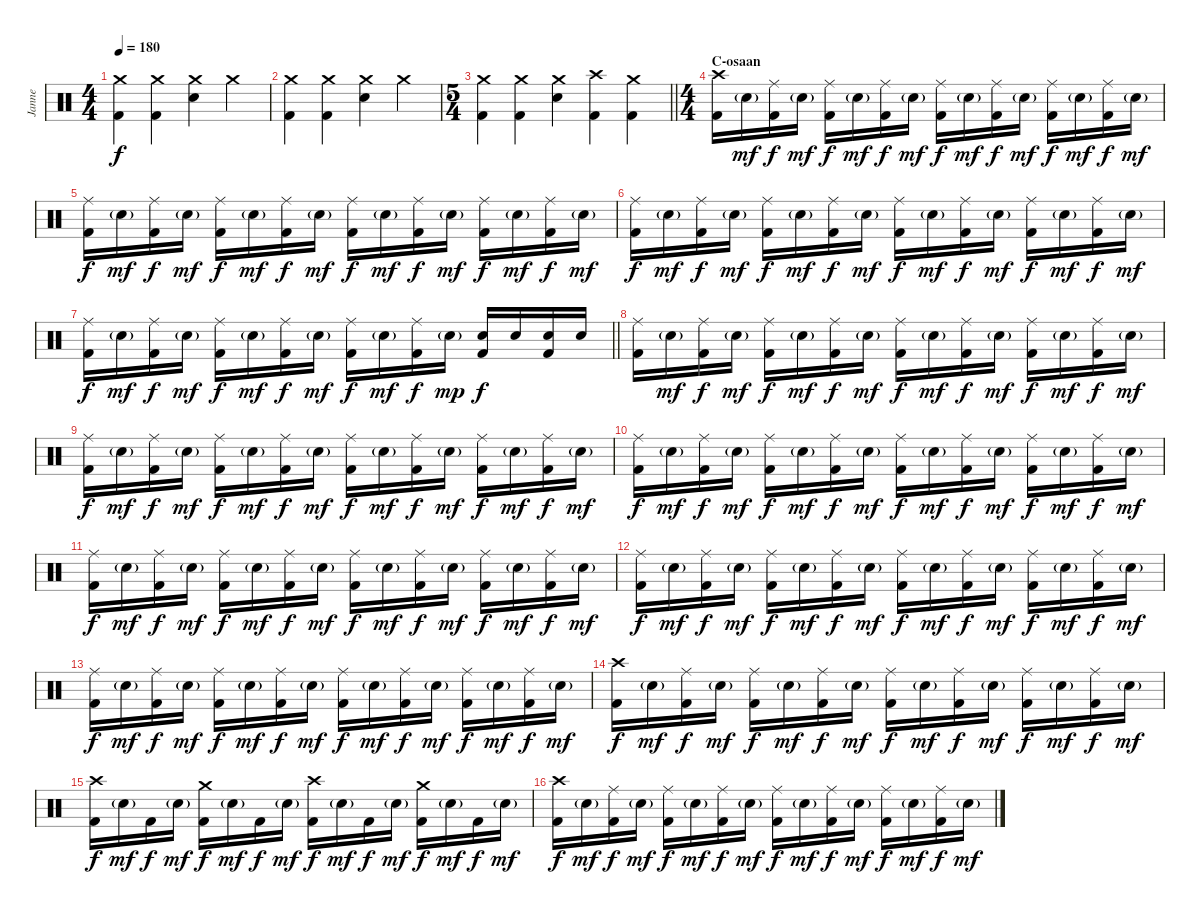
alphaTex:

\track ("Janne" "Janne") {instrument percussion}
\staff {score}
\articulation defaults
\ts (4 4)
\tempo 180
\clef neutral
\ks c
("Crash medium (hit)" "Kick (hit) 2").4{dy f} ("Crash medium (hit)" "Kick (hit) 2").4 ("Crash medium (hit)" "Electric Snare (hit)").4 "Crash medium (hit)".4 |
("Crash medium (hit)" "Kick (hit) 2").4 ("Crash medium (hit)" "Kick (hit) 2").4 ("Crash medium (hit)" "Electric Snare (hit)").4 "Crash medium (hit)".4 |
\ts (5 4)
\barLineRight lightlight
("Crash medium (hit)" "Kick (hit) 2").4 ("Crash medium (hit)" "Kick (hit) 2").4 ("Crash medium (hit)" "Electric Snare (hit)").4 ("Crash high (hit)" "Kick (hit) 2").4 ("Crash medium (hit)" "Kick (hit) 2").4 |
\ts (4 4)
\section ("" "C-osaan")
("Crash high (hit)" "Kick (hit) 2").16 "Electric Snare (hit)"{g}.16{dy mf} ("Ride (middle)" "Kick (hit) 2").16{dy f} "Electric Snare (hit)"{g}.16{dy mf} ("Ride (middle)" "Kick (hit) 2").16{dy f} "Electric Snare (hit)"{g}.16{dy mf} ("Ride (middle)" "Kick (hit) 2").16{dy f} "Electric Snare (hit)"{g}.16{dy mf} ("Ride (middle)" "Kick (hit) 2").16{dy f} "Electric Snare (hit)"{g}.16{dy mf} ("Ride (middle)" "Kick (hit) 2").16{dy f} "Electric Snare (hit)"{g}.16{dy mf} ("Ride (middle)" "Kick (hit) 2").16{dy f} "Electric Snare (hit)"{g}.16{dy mf} ("Ride (middle)" "Kick (hit) 2").16{dy f} "Electric Snare (hit)"{g}.16{dy mf} |
("Ride (middle)" "Kick (hit) 2").16{dy f} "Electric Snare (hit)"{g}.16{dy mf} ("Ride (middle)" "Kick (hit) 2").16{dy f} "Electric Snare (hit)"{g}.16{dy mf} ("Ride (middle)" "Kick (hit) 2").16{dy f} "Electric Snare (hit)"{g}.16{dy mf} ("Ride (middle)" "Kick (hit) 2").16{dy f} "Electric Snare (hit)"{g}.16{dy mf} ("Ride (middle)" "Kick (hit) 2").16{dy f} "Electric Snare (hit)"{g}.16{dy mf} ("Ride (middle)" "Kick (hit) 2").16{dy f} "Electric Snare (hit)"{g}.16{dy mf} ("Ride (middle)" "Kick (hit) 2").16{dy f} "Electric Snare (hit)"{g}.16{dy mf} ("Ride (middle)" "Kick (hit) 2").16{dy f} "Electric Snare (hit)"{g}.16{dy mf} |
("Ride (middle)" "Kick (hit) 2").16{dy f} "Electric Snare (hit)"{g}.16{dy mf} ("Ride (middle)" "Kick (hit) 2").16{dy f} "Electric Snare (hit)"{g}.16{dy mf} ("Ride (middle)" "Kick (hit) 2").16{dy f} "Electric Snare (hit)"{g}.16{dy mf} ("Ride (middle)" "Kick (hit) 2").16{dy f} "Electric Snare (hit)"{g}.16{dy mf} ("Ride (middle)" "Kick (hit) 2").16{dy f} "Electric Snare (hit)"{g}.16{dy mf} ("Ride (middle)" "Kick (hit) 2").16{dy f} "Electric Snare (hit)"{g}.16{dy mf} ("Ride (middle)" "Kick (hit) 2").16{dy f} "Electric Snare (hit)"{g}.16{dy mf} ("Ride (middle)" "Kick (hit) 2").16{dy f} "Electric Snare (hit)"{g}.16{dy mf} |
\barLineRight lightlight
("Ride (middle)" "Kick (hit) 2").16{dy f} "Electric Snare (hit)"{g}.16{dy mf} ("Ride (middle)" "Kick (hit) 2").16{dy f} "Electric Snare (hit)"{g}.16{dy mf} ("Ride (middle)" "Kick (hit) 2").16{dy f} "Electric Snare (hit)"{g}.16{dy mf} ("Ride (middle)" "Kick (hit) 2").16{dy f} "Electric Snare (hit)"{g}.16{dy mf} ("Ride (middle)" "Kick (hit) 2").16{dy f} "Electric Snare (hit)"{g}.16{dy mf} ("Ride (middle)" "Kick (hit) 2").16{dy f} "Electric Snare (hit)"{g}.16{dy mp} ("Electric Snare (hit)" "Kick (hit) 2").16{dy f} "Electric Snare (hit)".16 ("Electric Snare (hit)" "Kick (hit) 2").16 "Electric Snare (hit)".16 |
\section ("" "")
("Ride (middle)" "Kick (hit) 2").16 "Electric Snare (hit)"{g}.16{dy mf} ("Ride (middle)" "Kick (hit) 2").16{dy f} "Electric Snare (hit)"{g}.16{dy mf} ("Ride (middle)" "Kick (hit) 2").16{dy f} "Electric Snare (hit)"{g}.16{dy mf} ("Ride (middle)" "Kick (hit) 2").16{dy f} "Electric Snare (hit)"{g}.16{dy mf} ("Ride (middle)" "Kick (hit) 2").16{dy f} "Electric Snare (hit)"{g}.16{dy mf} ("Ride (middle)" "Kick (hit) 2").16{dy f} "Electric Snare (hit)"{g}.16{dy mf} ("Ride (middle)" "Kick (hit) 2").16{dy f} "Electric Snare (hit)"{g}.16{dy mf} ("Ride (middle)" "Kick (hit) 2").16{dy f} "Electric Snare (hit)"{g}.16{dy mf} |
("Ride (middle)" "Kick (hit) 2").16{dy f} "Electric Snare (hit)"{g}.16{dy mf} ("Ride (middle)" "Kick (hit) 2").16{dy f} "Electric Snare (hit)"{g}.16{dy mf} ("Ride (middle)" "Kick (hit) 2").16{dy f} "Electric Snare (hit)"{g}.16{dy mf} ("Ride (middle)" "Kick (hit) 2").16{dy f} "Electric Snare (hit)"{g}.16{dy mf} ("Ride (middle)" "Kick (hit) 2").16{dy f} "Electric Snare (hit)"{g}.16{dy mf} ("Ride (middle)" "Kick (hit) 2").16{dy f} "Electric Snare (hit)"{g}.16{dy mf} ("Ride (middle)" "Kick (hit) 2").16{dy f} "Electric Snare (hit)"{g}.16{dy mf} ("Ride (middle)" "Kick (hit) 2").16{dy f} "Electric Snare (hit)"{g}.16{dy mf} |
("Ride (middle)" "Kick (hit) 2").16{dy f} "Electric Snare (hit)"{g}.16{dy mf} ("Ride (middle)" "Kick (hit) 2").16{dy f} "Electric Snare (hit)"{g}.16{dy mf} ("Ride (middle)" "Kick (hit) 2").16{dy f} "Electric Snare (hit)"{g}.16{dy mf} ("Ride (middle)" "Kick (hit) 2").16{dy f} "Electric Snare (hit)"{g}.16{dy mf} ("Ride (middle)" "Kick (hit) 2").16{dy f} "Electric Snare (hit)"{g}.16{dy mf} ("Ride (middle)" "Kick (hit) 2").16{dy f} "Electric Snare (hit)"{g}.16{dy mf} ("Ride (middle)" "Kick (hit) 2").16{dy f} "Electric Snare (hit)"{g}.16{dy mf} ("Ride (middle)" "Kick (hit) 2").16{dy f} "Electric Snare (hit)"{g}.16{dy mf} |
("Ride (middle)" "Kick (hit) 2").16{dy f} "Electric Snare (hit)"{g}.16{dy mf} ("Ride (middle)" "Kick (hit) 2").16{dy f} "Electric Snare (hit)"{g}.16{dy mf} ("Ride (middle)" "Kick (hit) 2").16{dy f} "Electric Snare (hit)"{g}.16{dy mf} ("Ride (middle)" "Kick (hit) 2").16{dy f} "Electric Snare (hit)"{g}.16{dy mf} ("Ride (middle)" "Kick (hit) 2").16{dy f} "Electric Snare (hit)"{g}.16{dy mf} ("Ride (middle)" "Kick (hit) 2").16{dy f} "Electric Snare (hit)"{g}.16{dy mf} ("Ride (middle)" "Kick (hit) 2").16{dy f} "Electric Snare (hit)"{g}.16{dy mf} ("Ride (middle)" "Kick (hit) 2").16{dy f} "Electric Snare (hit)"{g}.16{dy mf} |
("Ride (middle)" "Kick (hit) 2").16{dy f} "Electric Snare (hit)"{g}.16{dy mf} ("Ride (middle)" "Kick (hit) 2").16{dy f} "Electric Snare (hit)"{g}.16{dy mf} ("Ride (middle)" "Kick (hit) 2").16{dy f} "Electric Snare (hit)"{g}.16{dy mf} ("Ride (middle)" "Kick (hit) 2").16{dy f} "Electric Snare (hit)"{g}.16{dy mf} ("Ride (middle)" "Kick (hit) 2").16{dy f} "Electric Snare (hit)"{g}.16{dy mf} ("Ride (middle)" "Kick (hit) 2").16{dy f} "Electric Snare (hit)"{g}.16{dy mf} ("Ride (middle)" "Kick (hit) 2").16{dy f} "Electric Snare (hit)"{g}.16{dy mf} ("Ride (middle)" "Kick (hit) 2").16{dy f} "Electric Snare (hit)"{g}.16{dy mf} |
("Ride (middle)" "Kick (hit) 2").16{dy f} "Electric Snare (hit)"{g}.16{dy mf} ("Ride (middle)" "Kick (hit) 2").16{dy f} "Electric Snare (hit)"{g}.16{dy mf} ("Ride (middle)" "Kick (hit) 2").16{dy f} "Electric Snare (hit)"{g}.16{dy mf} ("Ride (middle)" "Kick (hit) 2").16{dy f} "Electric Snare (hit)"{g}.16{dy mf} ("Ride (middle)" "Kick (hit) 2").16{dy f} "Electric Snare (hit)"{g}.16{dy mf} ("Ride (middle)" "Kick (hit) 2").16{dy f} "Electric Snare (hit)"{g}.16{dy mf} ("Ride (middle)" "Kick (hit) 2").16{dy f} "Electric Snare (hit)"{g}.16{dy mf} ("Ride (middle)" "Kick (hit) 2").16{dy f} "Electric Snare (hit)"{g}.16{dy mf} |
("Crash high (hit)" "Kick (hit) 2").16{dy f} "Electric Snare (hit)"{g}.16{dy mf} ("Ride (middle)" "Kick (hit) 2").16{dy f} "Electric Snare (hit)"{g}.16{dy mf} ("Ride (middle)" "Kick (hit) 2").16{dy f} "Electric Snare (hit)"{g}.16{dy mf} ("Ride (middle)" "Kick (hit) 2").16{dy f} "Electric Snare (hit)"{g}.16{dy mf} ("Ride (middle)" "Kick (hit) 2").16{dy f} "Electric Snare (hit)"{g}.16{dy mf} ("Ride (middle)" "Kick (hit) 2").16{dy f} "Electric Snare (hit)"{g}.16{dy mf} ("Ride (middle)" "Kick (hit) 2").16{dy f} "Electric Snare (hit)"{g}.16{dy mf} ("Ride (middle)" "Kick (hit) 2").16{dy f} "Electric Snare (hit)"{g}.16{dy mf} |
("Crash high (hit)" "Kick (hit) 2").16{dy f} "Electric Snare (hit)"{g}.16{dy mf} "Kick (hit) 2".16{dy f} "Electric Snare (hit)"{g}.16{dy mf} ("Crash medium (hit)" "Kick (hit) 2").16{dy f} "Electric Snare (hit)"{g}.16{dy mf} "Kick (hit) 2".16{dy f} "Electric Snare (hit)"{g}.16{dy mf} ("Crash high (hit)" "Kick (hit) 2").16{dy f} "Electric Snare (hit)"{g}.16{dy mf} "Kick (hit) 2".16{dy f} "Electric Snare (hit)"{g}.16{dy mf} ("Crash medium (hit)" "Kick (hit) 2").16{dy f} "Electric Snare (hit)"{g}.16{dy mf} "Kick (hit) 2".16{dy f} "Electric Snare (hit)"{g}.16{dy mf} |
("Crash high (hit)" "Kick (hit) 2").16{dy f} "Electric Snare (hit)"{g}.16{dy mf} ("Ride (middle)" "Kick (hit) 2").16{dy f} "Electric Snare (hit)"{g}.16{dy mf} ("Ride (middle)" "Kick (hit) 2").16{dy f} "Electric Snare (hit)"{g}.16{dy mf} ("Ride (middle)" "Kick (hit) 2").16{dy f} "Electric Snare (hit)"{g}.16{dy mf} ("Ride (middle)" "Kick (hit) 2").16{dy f} "Electric Snare (hit)"{g}.16{dy mf} ("Ride (middle)" "Kick (hit) 2").16{dy f} "Electric Snare (hit)"{g}.16{dy mf} ("Ride (middle)" "Kick (hit) 2").16{dy f} "Electric Snare (hit)"{g}.16{dy mf} ("Ride (middle)" "Kick (hit) 2").16{dy f} "Electric Snare (hit)"{g}.16{dy mf}
